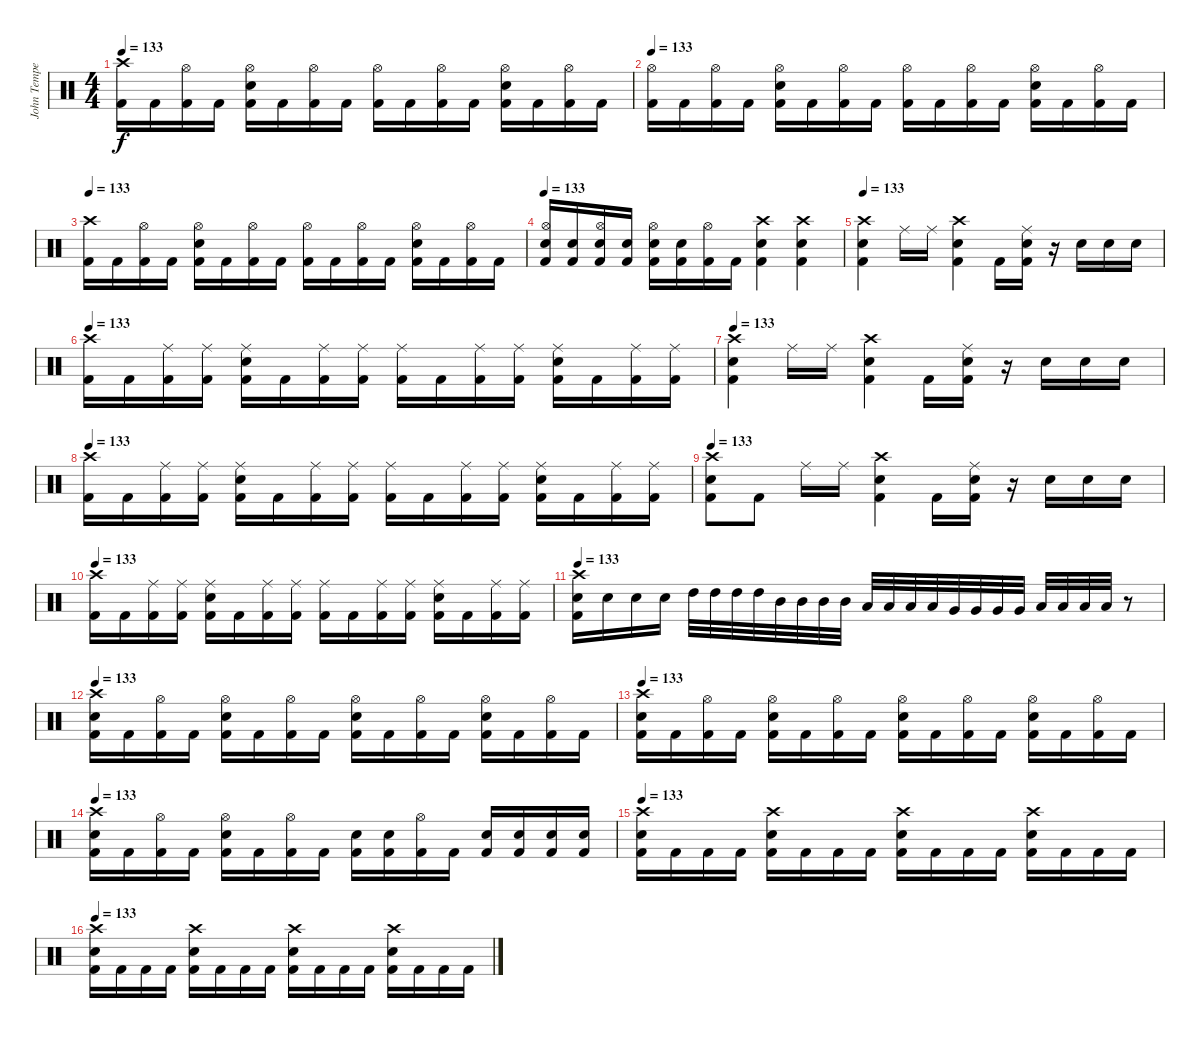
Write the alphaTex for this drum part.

\track ("John Tempesta" "John Tempe") {instrument percussion}
\staff {score}
\articulation defaults
\ts (4 4)
\tempo 133
\clef neutral
\ks c
("Crash high (hit)" "Kick (hit) 2").16{dy f} "Kick (hit) 2".16 ("Hi-Hat (open)" "Kick (hit) 2").16 "Kick (hit) 2".16 ("Hi-Hat (open)" "Electric Snare (hit)" "Kick (hit) 2").16 "Kick (hit) 2".16 ("Hi-Hat (open)" "Kick (hit) 2").16 "Kick (hit) 2".16 ("Hi-Hat (open)" "Kick (hit) 2").16 "Kick (hit) 2".16 ("Hi-Hat (open)" "Kick (hit) 2").16 "Kick (hit) 2".16 ("Hi-Hat (open)" "Electric Snare (hit)" "Kick (hit) 2").16 "Kick (hit) 2".16 ("Hi-Hat (open)" "Kick (hit) 2").16 "Kick (hit) 2".16 |
\tempo 133
("Hi-Hat (open)" "Kick (hit) 2").16 "Kick (hit) 2".16 ("Hi-Hat (open)" "Kick (hit) 2").16 "Kick (hit) 2".16 ("Hi-Hat (open)" "Electric Snare (hit)" "Kick (hit) 2").16 "Kick (hit) 2".16 ("Hi-Hat (open)" "Kick (hit) 2").16 "Kick (hit) 2".16 ("Hi-Hat (open)" "Kick (hit) 2").16 "Kick (hit) 2".16 ("Hi-Hat (open)" "Kick (hit) 2").16 "Kick (hit) 2".16 ("Hi-Hat (open)" "Electric Snare (hit)" "Kick (hit) 2").16 "Kick (hit) 2".16 ("Hi-Hat (open)" "Kick (hit) 2").16 "Kick (hit) 2".16 |
\tempo 133
("Crash high (hit)" "Kick (hit) 2").16 "Kick (hit) 2".16 ("Hi-Hat (open)" "Kick (hit) 2").16 "Kick (hit) 2".16 ("Hi-Hat (open)" "Electric Snare (hit)" "Kick (hit) 2").16 "Kick (hit) 2".16 ("Hi-Hat (open)" "Kick (hit) 2").16 "Kick (hit) 2".16 ("Hi-Hat (open)" "Kick (hit) 2").16 "Kick (hit) 2".16 ("Hi-Hat (open)" "Kick (hit) 2").16 "Kick (hit) 2".16 ("Hi-Hat (open)" "Electric Snare (hit)" "Kick (hit) 2").16 "Kick (hit) 2".16 ("Hi-Hat (open)" "Kick (hit) 2").16 "Kick (hit) 2".16 |
\tempo 133
("Hi-Hat (open)" "Electric Snare (hit)" "Kick (hit) 2").16 ("Electric Snare (hit)" "Kick (hit) 2").16 ("Hi-Hat (open)" "Electric Snare (hit)" "Kick (hit) 2").16 ("Electric Snare (hit)" "Kick (hit) 2").16 ("Hi-Hat (open)" "Electric Snare (hit)" "Kick (hit) 2").16 ("Electric Snare (hit)" "Kick (hit) 2").16 ("Hi-Hat (open)" "Kick (hit) 2").16 "Kick (hit) 2".16 ("Crash high (hit)" "Electric Snare (hit)" "Kick (hit) 2").4 ("Crash high (hit)" "Electric Snare (hit)" "Kick (hit) 2").4 |
\tempo 133
("Crash high (hit)" "Electric Snare (hit)" "Kick (hit) 2").4 "Ride (middle)".16 "Ride (middle)".16 ("Crash high (hit)" "Electric Snare (hit)" "Kick (hit) 2").4 "Kick (hit) 2".16 ("Ride (middle)" "Electric Snare (hit)" "Kick (hit) 2").16 r.16 "Electric Snare (hit)".16 "Electric Snare (hit)".16 "Electric Snare (hit)".16 |
\tempo 133
("Crash high (hit)" "Kick (hit) 2").16 "Kick (hit) 2".16 ("Ride (middle)" "Kick (hit) 2").16 ("Ride (middle)" "Kick (hit) 2").16 ("Ride (middle)" "Electric Snare (hit)" "Kick (hit) 2").16 "Kick (hit) 2".16 ("Ride (middle)" "Kick (hit) 2").16 ("Ride (middle)" "Kick (hit) 2").16 ("Ride (middle)" "Kick (hit) 2").16 "Kick (hit) 2".16 ("Ride (middle)" "Kick (hit) 2").16 ("Ride (middle)" "Kick (hit) 2").16 ("Ride (middle)" "Electric Snare (hit)" "Kick (hit) 2").16 "Kick (hit) 2".16 ("Ride (middle)" "Kick (hit) 2").16 ("Ride (middle)" "Kick (hit) 2").16 |
\tempo 133
("Crash high (hit)" "Electric Snare (hit)" "Kick (hit) 2").4 "Ride (middle)".16 "Ride (middle)".16 ("Crash high (hit)" "Electric Snare (hit)" "Kick (hit) 2").4 "Kick (hit) 2".16 ("Ride (middle)" "Electric Snare (hit)" "Kick (hit) 2").16 r.16 "Electric Snare (hit)".16 "Electric Snare (hit)".16 "Electric Snare (hit)".16 |
\tempo 133
("Crash high (hit)" "Kick (hit) 2").16 "Kick (hit) 2".16 ("Ride (middle)" "Kick (hit) 2").16 ("Ride (middle)" "Kick (hit) 2").16 ("Ride (middle)" "Electric Snare (hit)" "Kick (hit) 2").16 "Kick (hit) 2".16 ("Ride (middle)" "Kick (hit) 2").16 ("Ride (middle)" "Kick (hit) 2").16 ("Ride (middle)" "Kick (hit) 2").16 "Kick (hit) 2".16 ("Ride (middle)" "Kick (hit) 2").16 ("Ride (middle)" "Kick (hit) 2").16 ("Ride (middle)" "Electric Snare (hit)" "Kick (hit) 2").16 "Kick (hit) 2".16 ("Ride (middle)" "Kick (hit) 2").16 ("Ride (middle)" "Kick (hit) 2").16 |
\tempo 133
("Crash high (hit)" "Electric Snare (hit)" "Kick (hit) 2").8 "Kick (hit) 2".8 "Ride (middle)".16 "Ride (middle)".16 ("Crash high (hit)" "Electric Snare (hit)" "Kick (hit) 2").4 "Kick (hit) 2".16 ("Ride (middle)" "Electric Snare (hit)" "Kick (hit) 2").16 r.16 "Electric Snare (hit)".16 "Electric Snare (hit)".16 "Electric Snare (hit)".16 |
\tempo 133
("Crash high (hit)" "Kick (hit) 2").16 "Kick (hit) 2".16 ("Ride (middle)" "Kick (hit) 2").16 ("Ride (middle)" "Kick (hit) 2").16 ("Ride (middle)" "Electric Snare (hit)" "Kick (hit) 2").16 "Kick (hit) 2".16 ("Ride (middle)" "Kick (hit) 2").16 ("Ride (middle)" "Kick (hit) 2").16 ("Ride (middle)" "Kick (hit) 2").16 "Kick (hit) 2".16 ("Ride (middle)" "Kick (hit) 2").16 ("Ride (middle)" "Kick (hit) 2").16 ("Ride (middle)" "Electric Snare (hit)" "Kick (hit) 2").16 "Kick (hit) 2".16 ("Ride (middle)" "Kick (hit) 2").16 ("Ride (middle)" "Kick (hit) 2").16 |
\tempo 133
("Crash high (hit)" "Electric Snare (hit)" "Kick (hit) 2").16 "Electric Snare (hit)".16 "Electric Snare (hit)".16 "Electric Snare (hit)".16 "High Tom (hit)".32 "High Tom (hit)".32 "High Tom (hit)".32 "High Tom (hit)".32 "Mid Tom (hit)".32 "Mid Tom (hit)".32 "Mid Tom (hit)".32 "Mid Tom (hit)".32 "Low Tom (hit)".32 "Low Tom (hit)".32 "Low Tom (hit)".32 "Low Tom (hit)".32 "Very Low Tom (hit)".32 "Very Low Tom (hit)".32 "Very Low Tom (hit)".32 "Very Low Tom (hit)".32 "Low Floor Tom (hit)".32 "Low Floor Tom (hit)".32 "Low Floor Tom (hit)".32 "Low Floor Tom (hit)".32 r.8 |
\tempo 133
("Crash high (hit)" "Electric Snare (hit)" "Kick (hit) 2").16 "Kick (hit) 2".16 ("Hi-Hat (open)" "Kick (hit) 2").16 "Kick (hit) 2".16 ("Hi-Hat (open)" "Electric Snare (hit)" "Kick (hit) 2").16 "Kick (hit) 2".16 ("Hi-Hat (open)" "Kick (hit) 2").16 "Kick (hit) 2".16 ("Hi-Hat (open)" "Electric Snare (hit)" "Kick (hit) 2").16 "Kick (hit) 2".16 ("Hi-Hat (open)" "Kick (hit) 2").16 "Kick (hit) 2".16 ("Hi-Hat (open)" "Electric Snare (hit)" "Kick (hit) 2").16 "Kick (hit) 2".16 ("Hi-Hat (open)" "Kick (hit) 2").16 "Kick (hit) 2".16 |
\tempo 133
("Crash high (hit)" "Electric Snare (hit)" "Kick (hit) 2").16 "Kick (hit) 2".16 ("Hi-Hat (open)" "Kick (hit) 2").16 "Kick (hit) 2".16 ("Hi-Hat (open)" "Electric Snare (hit)" "Kick (hit) 2").16 "Kick (hit) 2".16 ("Hi-Hat (open)" "Kick (hit) 2").16 "Kick (hit) 2".16 ("Hi-Hat (open)" "Electric Snare (hit)" "Kick (hit) 2").16 "Kick (hit) 2".16 ("Hi-Hat (open)" "Kick (hit) 2").16 "Kick (hit) 2".16 ("Hi-Hat (open)" "Electric Snare (hit)" "Kick (hit) 2").16 "Kick (hit) 2".16 ("Hi-Hat (open)" "Kick (hit) 2").16 "Kick (hit) 2".16 |
\tempo 133
("Crash high (hit)" "Electric Snare (hit)" "Kick (hit) 2").16 "Kick (hit) 2".16 ("Hi-Hat (open)" "Kick (hit) 2").16 "Kick (hit) 2".16 ("Hi-Hat (open)" "Electric Snare (hit)" "Kick (hit) 2").16 "Kick (hit) 2".16 ("Hi-Hat (open)" "Kick (hit) 2").16 "Kick (hit) 2".16 ("Electric Snare (hit)" "Kick (hit) 2").16 ("Electric Snare (hit)" "Kick (hit) 2").16 ("Hi-Hat (open)" "Kick (hit) 2").16 "Kick (hit) 2".16 ("Electric Snare (hit)" "Kick (hit) 2").16 ("Electric Snare (hit)" "Kick (hit) 2").16 ("Electric Snare (hit)" "Kick (hit) 2").16 ("Electric Snare (hit)" "Kick (hit) 2").16 |
\tempo 133
("Crash high (hit)" "Electric Snare (hit)" "Kick (hit) 2").16 "Kick (hit) 2".16 "Kick (hit) 2".16 "Kick (hit) 2".16 ("Crash high (hit)" "Electric Snare (hit)" "Kick (hit) 2").16 "Kick (hit) 2".16 "Kick (hit) 2".16 "Kick (hit) 2".16 ("Crash high (hit)" "Electric Snare (hit)" "Kick (hit) 2").16 "Kick (hit) 2".16 "Kick (hit) 2".16 "Kick (hit) 2".16 ("Crash high (hit)" "Electric Snare (hit)" "Kick (hit) 2").16 "Kick (hit) 2".16 "Kick (hit) 2".16 "Kick (hit) 2".16 |
\tempo 133
("Crash high (hit)" "Electric Snare (hit)" "Kick (hit) 2").16 "Kick (hit) 2".16 "Kick (hit) 2".16 "Kick (hit) 2".16 ("Crash high (hit)" "Electric Snare (hit)" "Kick (hit) 2").16 "Kick (hit) 2".16 "Kick (hit) 2".16 "Kick (hit) 2".16 ("Crash high (hit)" "Electric Snare (hit)" "Kick (hit) 2").16 "Kick (hit) 2".16 "Kick (hit) 2".16 "Kick (hit) 2".16 ("Crash high (hit)" "Electric Snare (hit)" "Kick (hit) 2").16 "Kick (hit) 2".16 "Kick (hit) 2".16 "Kick (hit) 2".16
